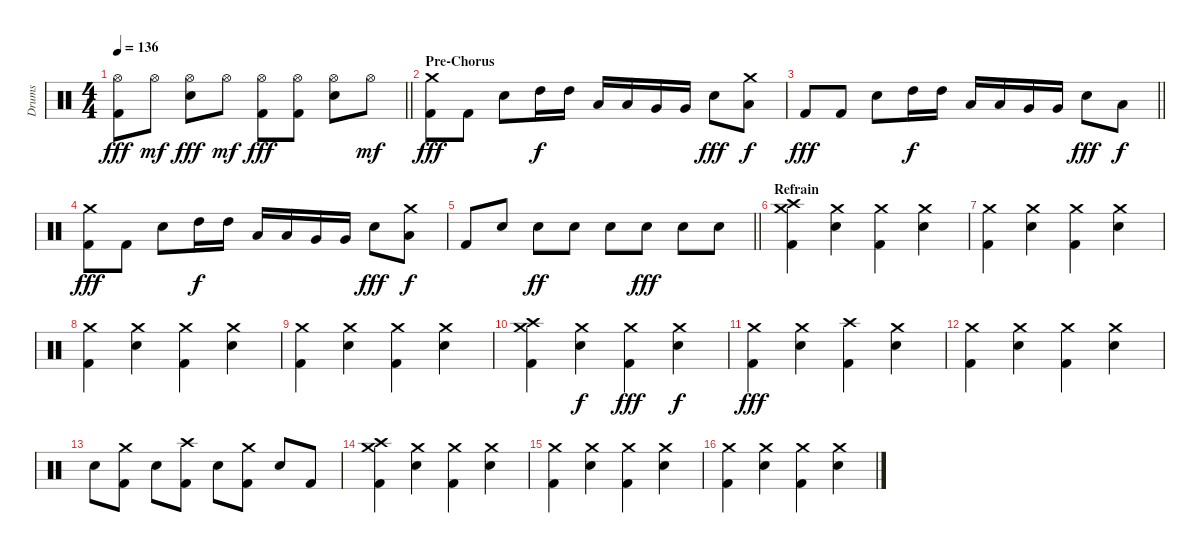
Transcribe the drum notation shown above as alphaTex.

\track ("Drums" "Drums") {instrument percussion}
\staff {score}
\articulation defaults
\ts (4 4)
\tempo 136
\clef neutral
\barLineRight lightlight
\ks c
("Hi-Hat (open)" "Kick (hit) 2").8{dy fff} "Hi-Hat (open)".8{dy mf} ("Hi-Hat (open)" "Electric Snare (hit)").8{dy fff} "Hi-Hat (open)".8{dy mf} ("Hi-Hat (open)" "Kick (hit) 2").8{dy fff} ("Hi-Hat (open)" "Kick (hit) 2").8 ("Hi-Hat (open)" "Electric Snare (hit)").8 "Hi-Hat (open)".8{dy mf} |
\section ("" "Pre-Chorus")
("Crash medium (hit)" "Kick (hit) 2").8{dy fff} "Kick (hit) 2".8 "Electric Snare (hit)".8 "High Tom (hit)".16{dy f} "High Tom (hit)".16 "Low Tom (hit)".16 "Low Tom (hit)".16 "Very Low Tom (hit)".16 "Very Low Tom (hit)".16 "Electric Snare (hit)".8{dy fff} ("Crash medium (hit)" "Low Tom (hit)").8{dy f} |
\barLineRight lightlight "Kick (hit) 2".8{dy fff} "Kick (hit) 2".8 "Electric Snare (hit)".8 "High Tom (hit)".16{dy f} "High Tom (hit)".16 "Low Tom (hit)".16 "Low Tom (hit)".16 "Very Low Tom (hit)".16 "Very Low Tom (hit)".16 "Electric Snare (hit)".8{dy fff} "Low Tom (hit)".8{dy f}
|
("Crash medium (hit)" "Kick (hit) 2").8{dy fff} "Kick (hit) 2".8 "Electric Snare (hit)".8 "High Tom (hit)".16{dy f} "High Tom (hit)".16 "Low Tom (hit)".16 "Low Tom (hit)".16 "Very Low Tom (hit)".16 "Very Low Tom (hit)".16 "Electric Snare (hit)".8{dy fff} ("Crash medium (hit)" "Low Tom (hit)").8{dy f} |
\barLineRight lightlight "Kick (hit) 2".8 "Electric Snare (hit)".8 "Electric Snare (hit)".8{dy ff} "Electric Snare (hit)".8 "Electric Snare (hit)".8 "Electric Snare (hit)".8{dy fff} "Electric Snare (hit)".8 "Electric Snare (hit)".8
|
\section ("" "Refrain")
("Crash medium (hit)" "Crash high (hit)" "Kick (hit) 2").4 ("Crash medium (hit)" "Electric Snare (hit)").4 ("Crash medium (hit)" "Kick (hit) 2").4 ("Crash medium (hit)" "Electric Snare (hit)").4 |
("Crash medium (hit)" "Kick (hit) 2").4 ("Crash medium (hit)" "Electric Snare (hit)").4 ("Crash medium (hit)" "Kick (hit) 2").4 ("Crash medium (hit)" "Electric Snare (hit)").4 |
("Crash medium (hit)" "Kick (hit) 2").4 ("Crash medium (hit)" "Electric Snare (hit)").4 ("Crash medium (hit)" "Kick (hit) 2").4 ("Crash medium (hit)" "Electric Snare (hit)").4 |
("Crash medium (hit)" "Kick (hit) 2").4 ("Crash medium (hit)" "Electric Snare (hit)").4 ("Crash medium (hit)" "Kick (hit) 2").4 ("Crash medium (hit)" "Electric Snare (hit)").4 |
("Crash medium (hit)" "Crash high (hit)" "Kick (hit) 2").4 ("Crash medium (hit)" "Electric Snare (hit)").4{dy f} ("Crash medium (hit)" "Kick (hit) 2").4{dy fff} ("Crash medium (hit)" "Electric Snare (hit)").4{dy f} |
("Crash medium (hit)" "Kick (hit) 2").4{dy fff} ("Crash medium (hit)" "Electric Snare (hit)").4 ("Crash high (hit)" "Kick (hit) 2").4 ("Crash medium (hit)" "Electric Snare (hit)").4 |
("Crash medium (hit)" "Kick (hit) 2").4 ("Crash medium (hit)" "Electric Snare (hit)").4 ("Crash medium (hit)" "Kick (hit) 2").4 ("Crash medium (hit)" "Electric Snare (hit)").4 |
"Electric Snare (hit)".8 ("Crash medium (hit)" "Kick (hit) 2").8 "Electric Snare (hit)".8 ("Crash high (hit)" "Kick (hit) 2").8 "Electric Snare (hit)".8 ("Crash medium (hit)" "Kick (hit) 2").8 "Electric Snare (hit)".8 "Kick (hit) 2".8 |
("Crash medium (hit)" "Crash high (hit)" "Kick (hit) 2").4 ("Crash medium (hit)" "Electric Snare (hit)").4 ("Crash medium (hit)" "Kick (hit) 2").4 ("Crash medium (hit)" "Electric Snare (hit)").4 |
("Crash medium (hit)" "Kick (hit) 2").4 ("Crash medium (hit)" "Electric Snare (hit)").4 ("Crash medium (hit)" "Kick (hit) 2").4 ("Crash medium (hit)" "Electric Snare (hit)").4 |
("Crash medium (hit)" "Kick (hit) 2").4 ("Crash medium (hit)" "Electric Snare (hit)").4 ("Crash medium (hit)" "Kick (hit) 2").4 ("Crash medium (hit)" "Electric Snare (hit)").4
